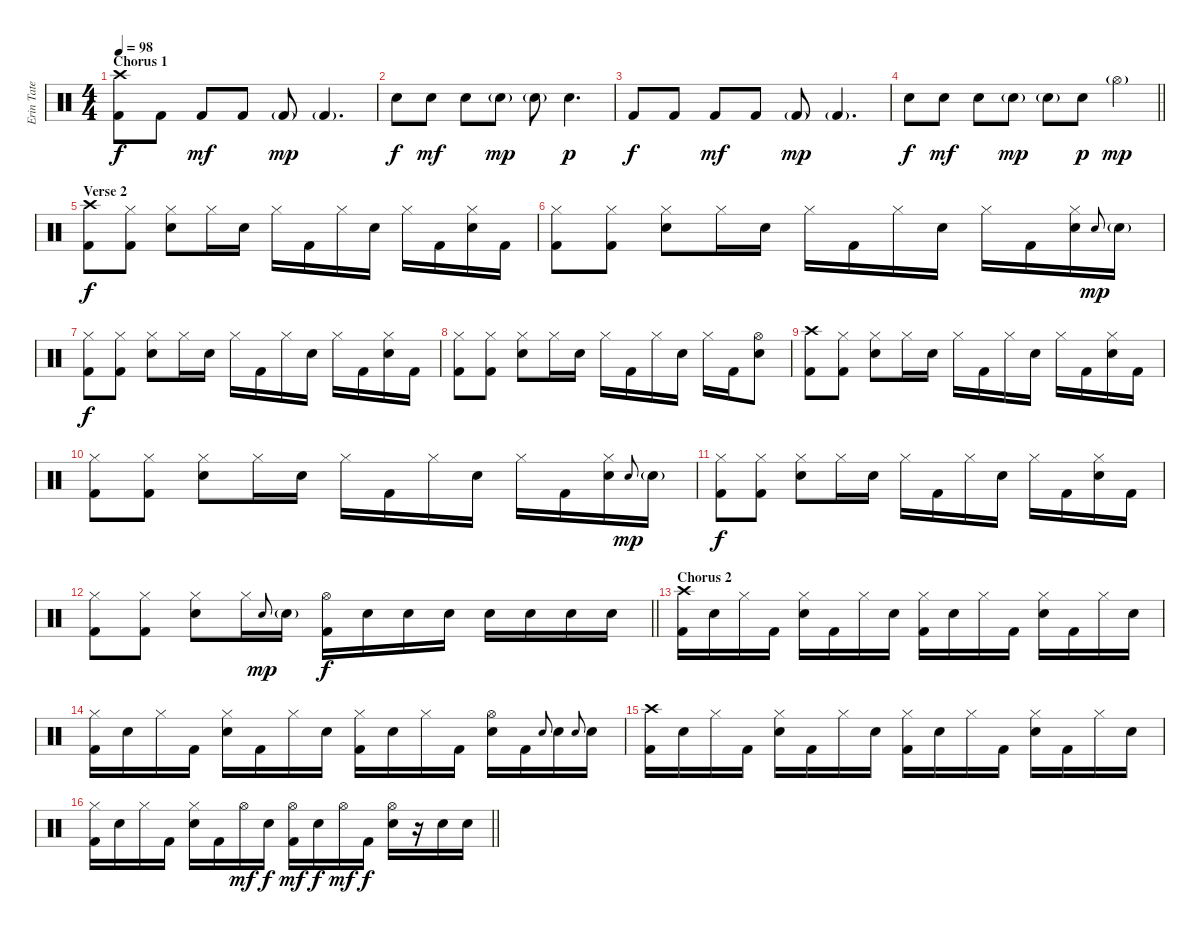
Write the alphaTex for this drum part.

\track ("Erin Tate" "Erin Tate") {instrument percussion}
\staff {score}
\articulation defaults
\ts (4 4)
\section ("" "Chorus 1")
\tempo 98
\clef neutral
\ks c
("Crash high (hit)" "Kick (hit) 2").8{dy f} "Kick (hit) 2".8 "Kick (hit) 2".8{dy mf} "Kick (hit) 2".8 "Kick (hit) 2"{g}.8{dy mp} "Kick (hit) 2"{g}.4{d} |
"Electric Snare (hit)".8{dy f} "Electric Snare (hit)".8{dy mf} "Electric Snare (hit)".8 "Electric Snare (hit)"{g}.8{dy mp} "Electric Snare (hit)"{g}.8 "Electric Snare (hit)".4{d dy p} |
"Kick (hit) 2".8{dy f} "Kick (hit) 2".8 "Kick (hit) 2".8{dy mf} "Kick (hit) 2".8 "Kick (hit) 2"{g}.8{dy mp} "Kick (hit) 2"{g}.4{d} |
\barLineRight lightlight "Electric Snare (hit)".8{dy f} "Electric Snare (hit)".8{dy mf} "Electric Snare (hit)".8 "Electric Snare (hit)"{g}.8{dy mp} "Electric Snare (hit)"{g}.8 "Electric Snare (hit)".8{dy p} "Hi-Hat (open)"{g}.4{dy mp}
|
\section ("" "Verse 2")
("Crash high (hit)" "Kick (hit) 2").8{dy f} ("Hi-Hat (closed)" "Kick (hit) 2").8 ("Hi-Hat (closed)" "Electric Snare (hit)").8 "Hi-Hat (closed)".16 "Electric Snare (hit)".16 "Hi-Hat (closed)".16 "Kick (hit) 2".16 "Hi-Hat (closed)".16 "Electric Snare (hit)".16 "Hi-Hat (closed)".16 "Kick (hit) 2".16 ("Hi-Hat (closed)" "Electric Snare (hit)").16 "Kick (hit) 2".16 |
("Hi-Hat (closed)" "Kick (hit) 2").8 ("Hi-Hat (closed)" "Kick (hit) 2").8 ("Hi-Hat (closed)" "Electric Snare (hit)").8 "Hi-Hat (closed)".16 "Electric Snare (hit)".16 "Hi-Hat (closed)".16 "Kick (hit) 2".16 "Hi-Hat (closed)".16 "Electric Snare (hit)".16 "Hi-Hat (closed)".16 "Kick (hit) 2".16 ("Hi-Hat (closed)" "Electric Snare (hit)").16 "Electric Snare (hit)".8{gr onbeat dy mp} "Electric Snare (hit)"{g}.16 |
("Hi-Hat (closed)" "Kick (hit) 2").8{dy f} ("Hi-Hat (closed)" "Kick (hit) 2").8 ("Hi-Hat (closed)" "Electric Snare (hit)").8 "Hi-Hat (closed)".16 "Electric Snare (hit)".16 "Hi-Hat (closed)".16 "Kick (hit) 2".16 "Hi-Hat (closed)".16 "Electric Snare (hit)".16 "Hi-Hat (closed)".16 "Kick (hit) 2".16 ("Hi-Hat (closed)" "Electric Snare (hit)").16 "Kick (hit) 2".16 |
("Hi-Hat (closed)" "Kick (hit) 2").8 ("Hi-Hat (closed)" "Kick (hit) 2").8 ("Hi-Hat (closed)" "Electric Snare (hit)").8 "Hi-Hat (closed)".16 "Electric Snare (hit)".16 "Hi-Hat (closed)".16 "Kick (hit) 2".16 "Hi-Hat (closed)".16 "Electric Snare (hit)".16 "Hi-Hat (closed)".16 "Kick (hit) 2".16 ("Hi-Hat (open)" "Electric Snare (hit)").8 |
("Crash high (hit)" "Kick (hit) 2").8 ("Hi-Hat (closed)" "Kick (hit) 2").8 ("Hi-Hat (closed)" "Electric Snare (hit)").8 "Hi-Hat (closed)".16 "Electric Snare (hit)".16 "Hi-Hat (closed)".16 "Kick (hit) 2".16 "Hi-Hat (closed)".16 "Electric Snare (hit)".16 "Hi-Hat (closed)".16 "Kick (hit) 2".16 ("Hi-Hat (closed)" "Electric Snare (hit)").16 "Kick (hit) 2".16 |
("Hi-Hat (closed)" "Kick (hit) 2").8 ("Hi-Hat (closed)" "Kick (hit) 2").8 ("Hi-Hat (closed)" "Electric Snare (hit)").8 "Hi-Hat (closed)".16 "Electric Snare (hit)".16 "Hi-Hat (closed)".16 "Kick (hit) 2".16 "Hi-Hat (closed)".16 "Electric Snare (hit)".16 "Hi-Hat (closed)".16 "Kick (hit) 2".16 ("Hi-Hat (closed)" "Electric Snare (hit)").16 "Electric Snare (hit)".8{gr onbeat dy mp} "Electric Snare (hit)"{g}.16 |
("Hi-Hat (closed)" "Kick (hit) 2").8{dy f} ("Hi-Hat (closed)" "Kick (hit) 2").8 ("Hi-Hat (closed)" "Electric Snare (hit)").8 "Hi-Hat (closed)".16 "Electric Snare (hit)".16 "Hi-Hat (closed)".16 "Kick (hit) 2".16 "Hi-Hat (closed)".16 "Electric Snare (hit)".16 "Hi-Hat (closed)".16 "Kick (hit) 2".16 ("Hi-Hat (closed)" "Electric Snare (hit)").16 "Kick (hit) 2".16 |
\barLineRight lightlight
("Hi-Hat (closed)" "Kick (hit) 2").8 ("Hi-Hat (closed)" "Kick (hit) 2").8 ("Hi-Hat (closed)" "Electric Snare (hit)").8 "Hi-Hat (closed)".16 "Electric Snare (hit)".8{gr onbeat dy mp} "Electric Snare (hit)"{g}.16 ("Hi-Hat (open)" "Kick (hit) 2").16{dy f} "Electric Snare (hit)".16 "Electric Snare (hit)".16 "Electric Snare (hit)".16 "Electric Snare (hit)".16 "Electric Snare (hit)".16 "Electric Snare (hit)".16 "Electric Snare (hit)".16 |
\section ("" "Chorus 2")
("Crash high (hit)" "Kick (hit) 2").16 "Electric Snare (hit)".16 "Hi-Hat (closed)".16 "Kick (hit) 2".16 ("Hi-Hat (closed)" "Electric Snare (hit)").16 "Kick (hit) 2".16 "Hi-Hat (closed)".16 "Electric Snare (hit)".16 ("Hi-Hat (closed)" "Kick (hit) 2").16 "Electric Snare (hit)".16 "Hi-Hat (closed)".16 "Kick (hit) 2".16 ("Hi-Hat (closed)" "Electric Snare (hit)").16 "Kick (hit) 2".16 "Hi-Hat (closed)".16 "Electric Snare (hit)".16 |
("Hi-Hat (closed)" "Kick (hit) 2").16 "Electric Snare (hit)".16 "Hi-Hat (closed)".16 "Kick (hit) 2".16 ("Hi-Hat (closed)" "Electric Snare (hit)").16 "Kick (hit) 2".16 "Hi-Hat (closed)".16 "Electric Snare (hit)".16 ("Hi-Hat (closed)" "Kick (hit) 2").16 "Electric Snare (hit)".16 "Hi-Hat (closed)".16 "Kick (hit) 2".16 ("Hi-Hat (open)" "Electric Snare (hit)").16 "Kick (hit) 2".16 "Electric Snare (hit)".8{gr onbeat} "Electric Snare (hit)".16 "Electric Snare (hit)".8{gr onbeat} "Electric Snare (hit)".16 |
("Crash high (hit)" "Kick (hit) 2").16 "Electric Snare (hit)".16 "Hi-Hat (closed)".16 "Kick (hit) 2".16 ("Hi-Hat (closed)" "Electric Snare (hit)").16 "Kick (hit) 2".16 "Hi-Hat (closed)".16 "Electric Snare (hit)".16 ("Hi-Hat (closed)" "Kick (hit) 2").16 "Electric Snare (hit)".16 "Hi-Hat (closed)".16 "Kick (hit) 2".16 ("Hi-Hat (closed)" "Electric Snare (hit)").16 "Kick (hit) 2".16 "Hi-Hat (closed)".16 "Electric Snare (hit)".16 |
\barLineRight lightlight
("Hi-Hat (closed)" "Kick (hit) 2").16 "Electric Snare (hit)".16 "Hi-Hat (closed)".16 "Kick (hit) 2".16 ("Hi-Hat (closed)" "Electric Snare (hit)").16 "Kick (hit) 2".16 "Hi-Hat (open)".16{dy mf} "Electric Snare (hit)".16{dy f} ("Hi-Hat (open)" "Kick (hit) 2").16{dy mf} "Electric Snare (hit)".16{dy f} "Hi-Hat (open)".16{dy mf} "Kick (hit) 2".16{dy f} ("Hi-Hat (open)" "Electric Snare (hit)").16 r.16 "Electric Snare (hit)".16 "Electric Snare (hit)".16
